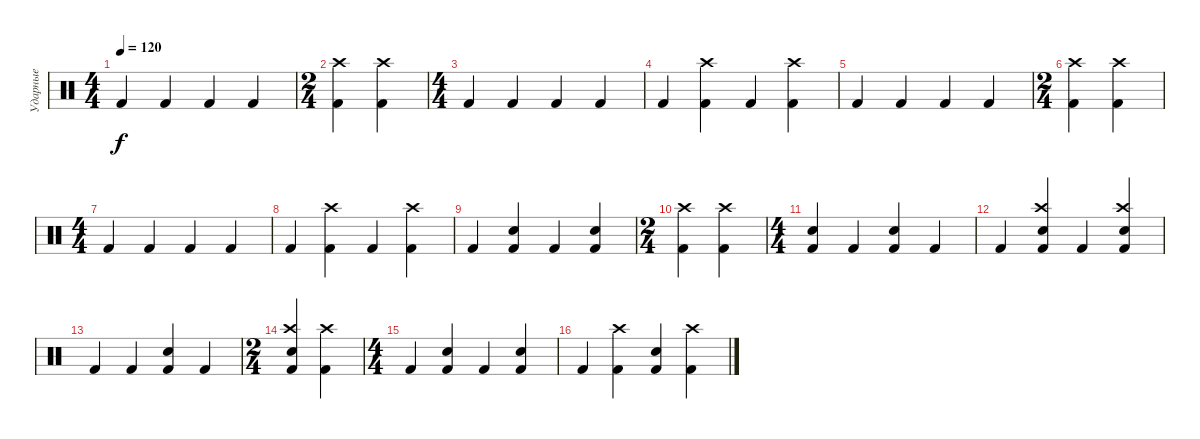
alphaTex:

\track ("Ударные" "Ударные") {instrument percussion}
\staff {score}
\articulation defaults
\ts (4 4)
\tempo 120
\clef neutral
\ks c "Kick (hit) 2".4{dy f} "Kick (hit) 2".4 "Kick (hit) 2".4 "Kick (hit) 2".4
|
\ts (2 4)
("Kick (hit) 2" "Crash high (hit)").4 ("Kick (hit) 2" "Crash high (hit)").4 |
\ts (4 4)
"Kick (hit) 2".4 "Kick (hit) 2".4 "Kick (hit) 2".4 "Kick (hit) 2".4 |
"Kick (hit) 2".4 ("Kick (hit) 2" "Crash high (hit)").4 "Kick (hit) 2".4 ("Kick (hit) 2" "Crash high (hit)").4 |
"Kick (hit) 2".4 "Kick (hit) 2".4 "Kick (hit) 2".4 "Kick (hit) 2".4 |
\ts (2 4)
("Kick (hit) 2" "Crash high (hit)").4 ("Kick (hit) 2" "Crash high (hit)").4 |
\ts (4 4)
"Kick (hit) 2".4 "Kick (hit) 2".4 "Kick (hit) 2".4 "Kick (hit) 2".4 |
"Kick (hit) 2".4 ("Kick (hit) 2" "Crash high (hit)").4 "Kick (hit) 2".4 ("Kick (hit) 2" "Crash high (hit)").4 |
"Kick (hit) 2".4 ("Kick (hit) 2" "Electric Snare (hit)").4 "Kick (hit) 2".4 ("Kick (hit) 2" "Electric Snare (hit)").4 |
\ts (2 4)
("Kick (hit) 2" "Crash high (hit)").4 ("Kick (hit) 2" "Crash high (hit)").4 |
\ts (4 4)
("Kick (hit) 2" "Electric Snare (hit)").4 "Kick (hit) 2".4 ("Kick (hit) 2" "Electric Snare (hit)").4 "Kick (hit) 2".4 |
"Kick (hit) 2".4 ("Kick (hit) 2" "Crash high (hit)" "Electric Snare (hit)").4 "Kick (hit) 2".4 ("Kick (hit) 2" "Crash high (hit)" "Electric Snare (hit)").4 |
"Kick (hit) 2".4 "Kick (hit) 2".4 ("Kick (hit) 2" "Electric Snare (hit)").4 "Kick (hit) 2".4 |
\ts (2 4)
("Kick (hit) 2" "Crash high (hit)" "Electric Snare (hit)").4 ("Kick (hit) 2" "Crash high (hit)").4 |
\ts (4 4)
"Kick (hit) 2".4 ("Kick (hit) 2" "Electric Snare (hit)").4 "Kick (hit) 2".4 ("Kick (hit) 2" "Electric Snare (hit)").4 |
"Kick (hit) 2".4 ("Kick (hit) 2" "Crash high (hit)").4 ("Kick (hit) 2" "Electric Snare (hit)").4 ("Kick (hit) 2" "Crash high (hit)").4
